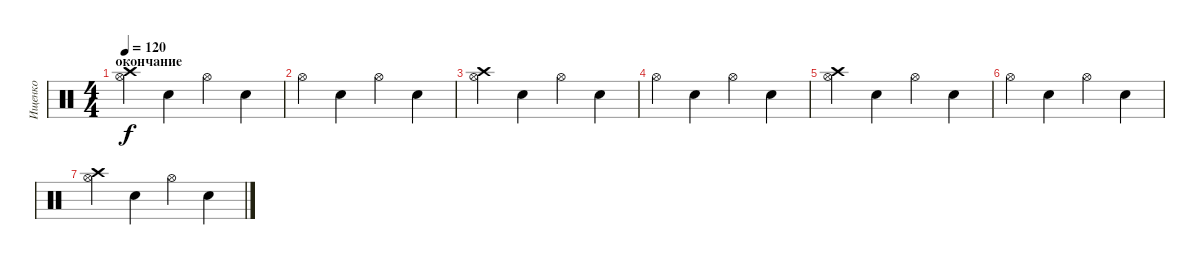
\track ("Ищенко" "Ищенко") {instrument percussion}
\staff {score}
\articulation defaults
\ts (4 4)
\section ("" "окончание")
\tempo 120
\clef neutral
\ks c
("Hi-Hat (open)" "Crash high (hit)").4{dy f} "Electric Snare (hit)".4 "Hi-Hat (open)".4 "Electric Snare (hit)".4 |
"Hi-Hat (open)".4 "Electric Snare (hit)".4 "Hi-Hat (open)".4 "Electric Snare (hit)".4 |
("Hi-Hat (open)" "Crash high (hit)").4 "Electric Snare (hit)".4 "Hi-Hat (open)".4 "Electric Snare (hit)".4 |
"Hi-Hat (open)".4 "Electric Snare (hit)".4 "Hi-Hat (open)".4 "Electric Snare (hit)".4 |
("Hi-Hat (open)" "Crash high (hit)").4 "Electric Snare (hit)".4 "Hi-Hat (open)".4 "Electric Snare (hit)".4 |
"Hi-Hat (open)".4 "Electric Snare (hit)".4 "Hi-Hat (open)".4 "Electric Snare (hit)".4 |
("Hi-Hat (open)" "Crash high (hit)").4 "Electric Snare (hit)".4 "Hi-Hat (open)".4 "Electric Snare (hit)".4
